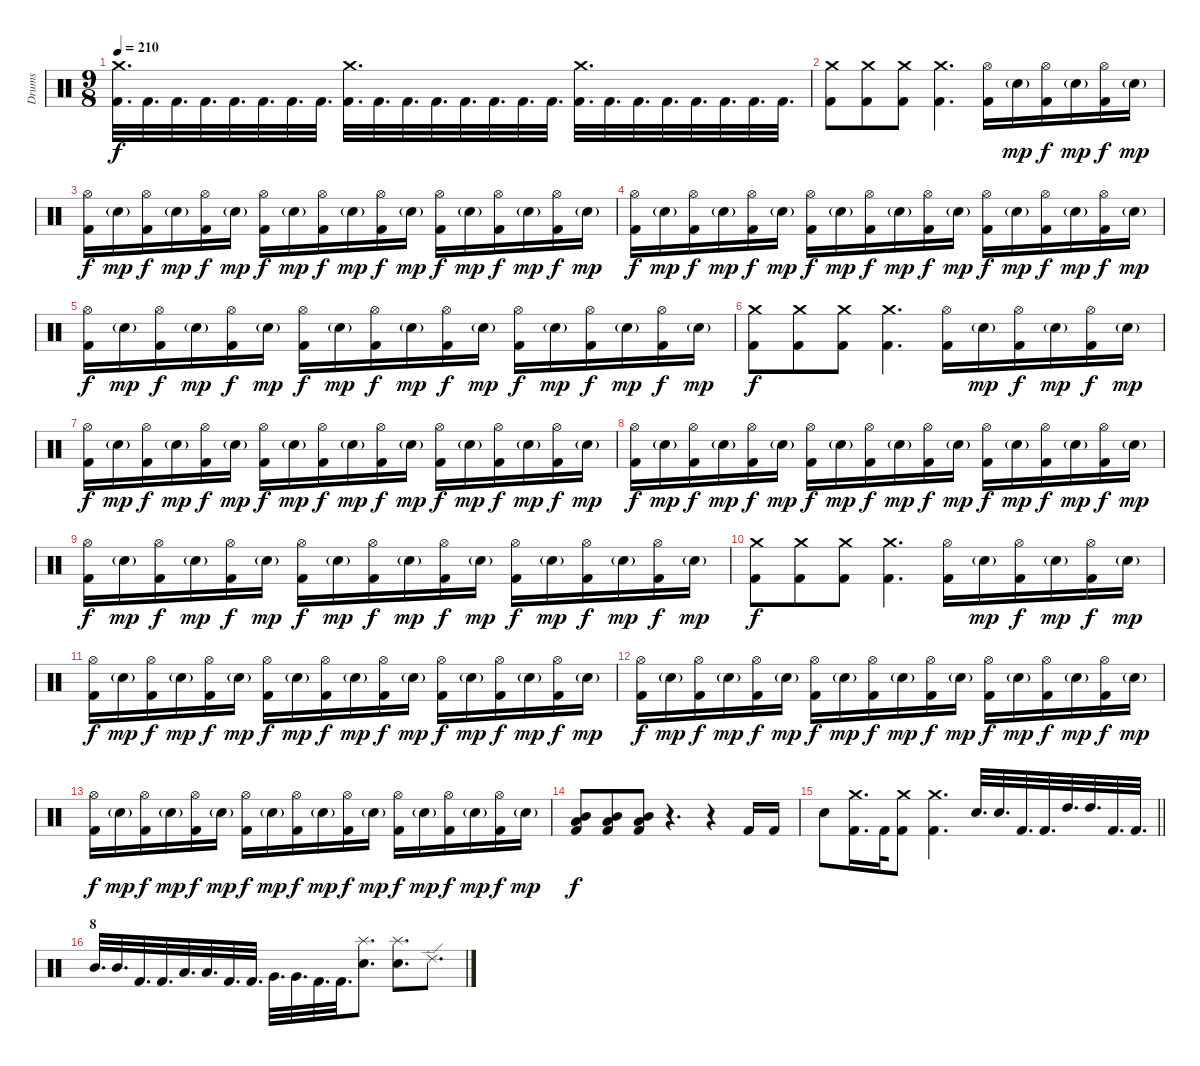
\track ("Drums" "Drums") {instrument percussion}
\staff {score}
\articulation defaults
\ts (9 8)
\tempo 210
\clef neutral
\ks c
("Crash medium (hit)" "Kick (hit) 2").32{d dy f} "Kick (hit) 2".32{d} "Kick (hit) 2".32{d} "Kick (hit) 2".32{d} "Kick (hit) 2".32{d} "Kick (hit) 2".32{d} "Kick (hit) 2".32{d} "Kick (hit) 2".32{d} ("Crash medium (hit)" "Kick (hit) 2").32{d} "Kick (hit) 2".32{d} "Kick (hit) 2".32{d} "Kick (hit) 2".32{d} "Kick (hit) 2".32{d} "Kick (hit) 2".32{d} "Kick (hit) 2".32{d} "Kick (hit) 2".32{d} ("Crash medium (hit)" "Kick (hit) 2").32{d} "Kick (hit) 2".32{d} "Kick (hit) 2".32{d} "Kick (hit) 2".32{d} "Kick (hit) 2".32{d} "Kick (hit) 2".32{d} "Kick (hit) 2".32{d} "Kick (hit) 2".32{d} |
("Crash medium (hit)" "Kick (hit) 2").8 ("Crash medium (hit)" "Kick (hit) 2").8 ("Crash medium (hit)" "Kick (hit) 2").8 ("Crash medium (hit)" "Kick (hit) 2").4{d} ("Hi-Hat (open)" "Kick (hit) 2").16 "Electric Snare (hit)"{g}.16{dy mp} ("Hi-Hat (open)" "Kick (hit) 2").16{dy f} "Electric Snare (hit)"{g}.16{dy mp} ("Hi-Hat (open)" "Kick (hit) 2").16{dy f} "Electric Snare (hit)"{g}.16{dy mp} |
("Hi-Hat (open)" "Kick (hit) 2").16{dy f} "Electric Snare (hit)"{g}.16{dy mp} ("Hi-Hat (open)" "Kick (hit) 2").16{dy f} "Electric Snare (hit)"{g}.16{dy mp} ("Hi-Hat (open)" "Kick (hit) 2").16{dy f} "Electric Snare (hit)"{g}.16{dy mp} ("Hi-Hat (open)" "Kick (hit) 2").16{dy f} "Electric Snare (hit)"{g}.16{dy mp} ("Hi-Hat (open)" "Kick (hit) 2").16{dy f} "Electric Snare (hit)"{g}.16{dy mp} ("Hi-Hat (open)" "Kick (hit) 2").16{dy f} "Electric Snare (hit)"{g}.16{dy mp} ("Hi-Hat (open)" "Kick (hit) 2").16{dy f} "Electric Snare (hit)"{g}.16{dy mp} ("Hi-Hat (open)" "Kick (hit) 2").16{dy f} "Electric Snare (hit)"{g}.16{dy mp} ("Hi-Hat (open)" "Kick (hit) 2").16{dy f} "Electric Snare (hit)"{g}.16{dy mp} |
("Hi-Hat (open)" "Kick (hit) 2").16{dy f} "Electric Snare (hit)"{g}.16{dy mp} ("Hi-Hat (open)" "Kick (hit) 2").16{dy f} "Electric Snare (hit)"{g}.16{dy mp} ("Hi-Hat (open)" "Kick (hit) 2").16{dy f} "Electric Snare (hit)"{g}.16{dy mp} ("Hi-Hat (open)" "Kick (hit) 2").16{dy f} "Electric Snare (hit)"{g}.16{dy mp} ("Hi-Hat (open)" "Kick (hit) 2").16{dy f} "Electric Snare (hit)"{g}.16{dy mp} ("Hi-Hat (open)" "Kick (hit) 2").16{dy f} "Electric Snare (hit)"{g}.16{dy mp} ("Hi-Hat (open)" "Kick (hit) 2").16{dy f} "Electric Snare (hit)"{g}.16{dy mp} ("Hi-Hat (open)" "Kick (hit) 2").16{dy f} "Electric Snare (hit)"{g}.16{dy mp} ("Hi-Hat (open)" "Kick (hit) 2").16{dy f} "Electric Snare (hit)"{g}.16{dy mp} |
("Hi-Hat (open)" "Kick (hit) 2").16{dy f} "Electric Snare (hit)"{g}.16{dy mp} ("Hi-Hat (open)" "Kick (hit) 2").16{dy f} "Electric Snare (hit)"{g}.16{dy mp} ("Hi-Hat (open)" "Kick (hit) 2").16{dy f} "Electric Snare (hit)"{g}.16{dy mp} ("Hi-Hat (open)" "Kick (hit) 2").16{dy f} "Electric Snare (hit)"{g}.16{dy mp} ("Hi-Hat (open)" "Kick (hit) 2").16{dy f} "Electric Snare (hit)"{g}.16{dy mp} ("Hi-Hat (open)" "Kick (hit) 2").16{dy f} "Electric Snare (hit)"{g}.16{dy mp} ("Hi-Hat (open)" "Kick (hit) 2").16{dy f} "Electric Snare (hit)"{g}.16{dy mp} ("Hi-Hat (open)" "Kick (hit) 2").16{dy f} "Electric Snare (hit)"{g}.16{dy mp} ("Hi-Hat (open)" "Kick (hit) 2").16{dy f} "Electric Snare (hit)"{g}.16{dy mp} |
("Crash medium (hit)" "Kick (hit) 2").8{dy f} ("Crash medium (hit)" "Kick (hit) 2").8 ("Crash medium (hit)" "Kick (hit) 2").8 ("Crash medium (hit)" "Kick (hit) 2").4{d} ("Hi-Hat (open)" "Kick (hit) 2").16 "Electric Snare (hit)"{g}.16{dy mp} ("Hi-Hat (open)" "Kick (hit) 2").16{dy f} "Electric Snare (hit)"{g}.16{dy mp} ("Hi-Hat (open)" "Kick (hit) 2").16{dy f} "Electric Snare (hit)"{g}.16{dy mp} |
("Hi-Hat (open)" "Kick (hit) 2").16{dy f} "Electric Snare (hit)"{g}.16{dy mp} ("Hi-Hat (open)" "Kick (hit) 2").16{dy f} "Electric Snare (hit)"{g}.16{dy mp} ("Hi-Hat (open)" "Kick (hit) 2").16{dy f} "Electric Snare (hit)"{g}.16{dy mp} ("Hi-Hat (open)" "Kick (hit) 2").16{dy f} "Electric Snare (hit)"{g}.16{dy mp} ("Hi-Hat (open)" "Kick (hit) 2").16{dy f} "Electric Snare (hit)"{g}.16{dy mp} ("Hi-Hat (open)" "Kick (hit) 2").16{dy f} "Electric Snare (hit)"{g}.16{dy mp} ("Hi-Hat (open)" "Kick (hit) 2").16{dy f} "Electric Snare (hit)"{g}.16{dy mp} ("Hi-Hat (open)" "Kick (hit) 2").16{dy f} "Electric Snare (hit)"{g}.16{dy mp} ("Hi-Hat (open)" "Kick (hit) 2").16{dy f} "Electric Snare (hit)"{g}.16{dy mp} |
("Hi-Hat (open)" "Kick (hit) 2").16{dy f} "Electric Snare (hit)"{g}.16{dy mp} ("Hi-Hat (open)" "Kick (hit) 2").16{dy f} "Electric Snare (hit)"{g}.16{dy mp} ("Hi-Hat (open)" "Kick (hit) 2").16{dy f} "Electric Snare (hit)"{g}.16{dy mp} ("Hi-Hat (open)" "Kick (hit) 2").16{dy f} "Electric Snare (hit)"{g}.16{dy mp} ("Hi-Hat (open)" "Kick (hit) 2").16{dy f} "Electric Snare (hit)"{g}.16{dy mp} ("Hi-Hat (open)" "Kick (hit) 2").16{dy f} "Electric Snare (hit)"{g}.16{dy mp} ("Hi-Hat (open)" "Kick (hit) 2").16{dy f} "Electric Snare (hit)"{g}.16{dy mp} ("Hi-Hat (open)" "Kick (hit) 2").16{dy f} "Electric Snare (hit)"{g}.16{dy mp} ("Hi-Hat (open)" "Kick (hit) 2").16{dy f} "Electric Snare (hit)"{g}.16{dy mp} |
("Hi-Hat (open)" "Kick (hit) 2").16{dy f} "Electric Snare (hit)"{g}.16{dy mp} ("Hi-Hat (open)" "Kick (hit) 2").16{dy f} "Electric Snare (hit)"{g}.16{dy mp} ("Hi-Hat (open)" "Kick (hit) 2").16{dy f} "Electric Snare (hit)"{g}.16{dy mp} ("Hi-Hat (open)" "Kick (hit) 2").16{dy f} "Electric Snare (hit)"{g}.16{dy mp} ("Hi-Hat (open)" "Kick (hit) 2").16{dy f} "Electric Snare (hit)"{g}.16{dy mp} ("Hi-Hat (open)" "Kick (hit) 2").16{dy f} "Electric Snare (hit)"{g}.16{dy mp} ("Hi-Hat (open)" "Kick (hit) 2").16{dy f} "Electric Snare (hit)"{g}.16{dy mp} ("Hi-Hat (open)" "Kick (hit) 2").16{dy f} "Electric Snare (hit)"{g}.16{dy mp} ("Hi-Hat (open)" "Kick (hit) 2").16{dy f} "Electric Snare (hit)"{g}.16{dy mp} |
("Crash medium (hit)" "Kick (hit) 2").8{dy f} ("Crash medium (hit)" "Kick (hit) 2").8 ("Crash medium (hit)" "Kick (hit) 2").8 ("Crash medium (hit)" "Kick (hit) 2").4{d} ("Hi-Hat (open)" "Kick (hit) 2").16 "Electric Snare (hit)"{g}.16{dy mp} ("Hi-Hat (open)" "Kick (hit) 2").16{dy f} "Electric Snare (hit)"{g}.16{dy mp} ("Hi-Hat (open)" "Kick (hit) 2").16{dy f} "Electric Snare (hit)"{g}.16{dy mp} |
("Hi-Hat (open)" "Kick (hit) 2").16{dy f} "Electric Snare (hit)"{g}.16{dy mp} ("Hi-Hat (open)" "Kick (hit) 2").16{dy f} "Electric Snare (hit)"{g}.16{dy mp} ("Hi-Hat (open)" "Kick (hit) 2").16{dy f} "Electric Snare (hit)"{g}.16{dy mp} ("Hi-Hat (open)" "Kick (hit) 2").16{dy f} "Electric Snare (hit)"{g}.16{dy mp} ("Hi-Hat (open)" "Kick (hit) 2").16{dy f} "Electric Snare (hit)"{g}.16{dy mp} ("Hi-Hat (open)" "Kick (hit) 2").16{dy f} "Electric Snare (hit)"{g}.16{dy mp} ("Hi-Hat (open)" "Kick (hit) 2").16{dy f} "Electric Snare (hit)"{g}.16{dy mp} ("Hi-Hat (open)" "Kick (hit) 2").16{dy f} "Electric Snare (hit)"{g}.16{dy mp} ("Hi-Hat (open)" "Kick (hit) 2").16{dy f} "Electric Snare (hit)"{g}.16{dy mp} |
("Hi-Hat (open)" "Kick (hit) 2").16{dy f} "Electric Snare (hit)"{g}.16{dy mp} ("Hi-Hat (open)" "Kick (hit) 2").16{dy f} "Electric Snare (hit)"{g}.16{dy mp} ("Hi-Hat (open)" "Kick (hit) 2").16{dy f} "Electric Snare (hit)"{g}.16{dy mp} ("Hi-Hat (open)" "Kick (hit) 2").16{dy f} "Electric Snare (hit)"{g}.16{dy mp} ("Hi-Hat (open)" "Kick (hit) 2").16{dy f} "Electric Snare (hit)"{g}.16{dy mp} ("Hi-Hat (open)" "Kick (hit) 2").16{dy f} "Electric Snare (hit)"{g}.16{dy mp} ("Hi-Hat (open)" "Kick (hit) 2").16{dy f} "Electric Snare (hit)"{g}.16{dy mp} ("Hi-Hat (open)" "Kick (hit) 2").16{dy f} "Electric Snare (hit)"{g}.16{dy mp} ("Hi-Hat (open)" "Kick (hit) 2").16{dy f} "Electric Snare (hit)"{g}.16{dy mp} |
("Hi-Hat (open)" "Kick (hit) 2").16{dy f} "Electric Snare (hit)"{g}.16{dy mp} ("Hi-Hat (open)" "Kick (hit) 2").16{dy f} "Electric Snare (hit)"{g}.16{dy mp} ("Hi-Hat (open)" "Kick (hit) 2").16{dy f} "Electric Snare (hit)"{g}.16{dy mp} ("Hi-Hat (open)" "Kick (hit) 2").16{dy f} "Electric Snare (hit)"{g}.16{dy mp} ("Hi-Hat (open)" "Kick (hit) 2").16{dy f} "Electric Snare (hit)"{g}.16{dy mp} ("Hi-Hat (open)" "Kick (hit) 2").16{dy f} "Electric Snare (hit)"{g}.16{dy mp} ("Hi-Hat (open)" "Kick (hit) 2").16{dy f} "Electric Snare (hit)"{g}.16{dy mp} ("Hi-Hat (open)" "Kick (hit) 2").16{dy f} "Electric Snare (hit)"{g}.16{dy mp} ("Hi-Hat (open)" "Kick (hit) 2").16{dy f} "Electric Snare (hit)"{g}.16{dy mp} |
("Mid Tom (hit)" "Low Tom (hit)" "Kick (hit) 2").8{dy f} ("Mid Tom (hit)" "Low Tom (hit)" "Kick (hit) 2").8 ("Mid Tom (hit)" "Low Tom (hit)" "Kick (hit) 2").8 r.4{d} r.4 "Kick (hit) 2".16 "Kick (hit) 2".16 |
\barLineRight lightlight "Electric Snare (hit)".8
("Crash medium (hit)" "Kick (hit) 2").16{d} "Kick (hit) 2".32 ("Crash medium (hit)" "Kick (hit) 2").8 ("Crash medium (hit)" "Kick (hit) 2").4{d} "Electric Snare (hit)".32{d} "Electric Snare (hit)".32{d} "Kick (hit) 2".32{d} "Kick (hit) 2".32{d} "High Tom (hit)".32{d} "High Tom (hit)".32{d} "Kick (hit) 2".32{d} "Kick (hit) 2".32{d} |
\section ("" "8")
"Mid Tom (hit)".32{d} "Mid Tom (hit)".32{d} "Kick (hit) 2".32{d} "Kick (hit) 2".32{d} "Low Tom (hit)".32{d} "Low Tom (hit)".32{d} "Kick (hit) 2".32{d} "Kick (hit) 2".32{d} "Very Low Tom (hit)".32{d} "Very Low Tom (hit)".32{d} "Kick (hit) 2".32{d} "Kick (hit) 2".32{d} ("Splash (hit)" "Electric Snare (hit)").8{d} ("Splash (hit)" "Electric Snare (hit)").8{d} "Ride (edge) 2".8{d}
